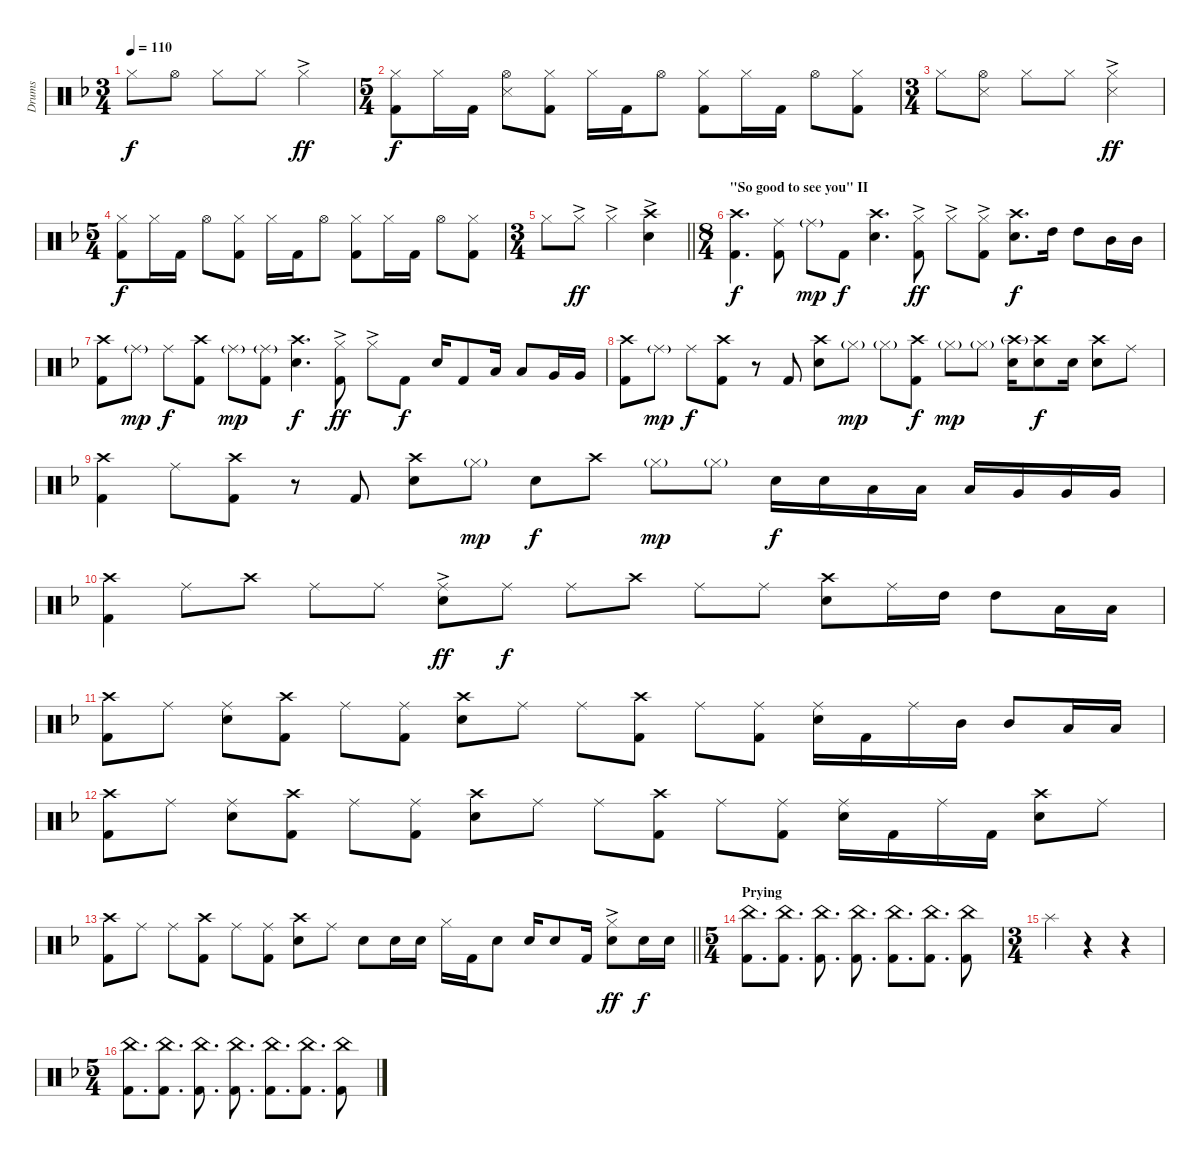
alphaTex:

\track ("Drums" "Drums") {instrument percussion}
\staff {score}
\articulation defaults
\ts (3 4)
\tempo 110
\clef neutral
\ks dminor "Hi-Hat (closed)".8{dy f} "Hi-Hat (open)".8 "Hi-Hat (closed)".8 "Hi-Hat (closed)".8 "Hi-Hat (closed)"{ac}.4{dy ff}
|
\ts (5 4)
("Hi-Hat (closed)" "Kick (hit) 2").8{dy f} "Hi-Hat (closed)".16 "Kick (hit) 2".16 ("Hi-Hat (open)" "Snare (side stick) 3").8 ("Hi-Hat (closed)" "Kick (hit) 2").8 "Hi-Hat (closed)".16 "Kick (hit) 2".16 "Hi-Hat (open)".8 ("Hi-Hat (closed)" "Kick (hit) 2").8 "Hi-Hat (closed)".16 "Kick (hit) 2".16 "Hi-Hat (open)".8 ("Hi-Hat (closed)" "Kick (hit) 2").8 |
\ts (3 4)
"Hi-Hat (closed)".8 ("Hi-Hat (open)" "Snare (side stick) 3").8 "Hi-Hat (closed)".8 "Hi-Hat (closed)".8 ("Hi-Hat (closed)"{ac} "Snare (side stick) 3").4{dy ff} |
\ts (5 4)
("Hi-Hat (closed)" "Kick (hit) 2").8{dy f} "Hi-Hat (closed)".16 "Kick (hit) 2".16 "Hi-Hat (open)".8 ("Hi-Hat (closed)" "Kick (hit) 2").8 "Hi-Hat (closed)".16 "Kick (hit) 2".16 "Hi-Hat (open)".8 ("Hi-Hat (closed)" "Kick (hit) 2").8 "Hi-Hat (closed)".16 "Kick (hit) 2".16 "Hi-Hat (open)".8 ("Hi-Hat (closed)" "Kick (hit) 2").8 |
\ts (3 4)
\barLineRight lightlight "Hi-Hat (closed)".8 "Hi-Hat (closed)"{ac}.8{dy ff} "Hi-Hat (closed)"{ac}.4
("Crash high (hit)"{ac} "Snare (hit) 2").4 |
\ts (8 4)
\section ("" "\"So good to see you\" II")
("Crash high (hit)" "Kick (hit) 2").4{d dy f} ("Ride (middle)" "Kick (hit) 2").8 "Ride (middle)"{g}.8{dy mp} "Kick (hit) 2".8{dy f} ("Crash high (hit)" "Snare (hit) 2").4{d} ("Hi-Hat (closed)"{ac} "Kick (hit) 2").8{dy ff} "Hi-Hat (closed)"{ac}.8 ("Hi-Hat (closed)"{ac} "Kick (hit) 2").8 ("Crash high (hit)" "Snare (hit) 2").8{d dy f} "High Tom (hit)".16 "High Tom (hit)".8 "Mid Tom (hit)".16 "Mid Tom (hit)".16 |
("Crash high (hit)" "Kick (hit) 2").8 "Ride (middle)"{g}.8{dy mp} "Ride (middle)".8{dy f} ("Crash high (hit)" "Kick (hit) 2").8 "Ride (middle)"{g}.8{dy mp} ("Ride (middle)"{g} "Kick (hit) 2").8 ("Crash high (hit)" "Snare (hit) 2").4{d dy f} ("Hi-Hat (closed)"{ac} "Kick (hit) 2").8{dy ff} "Hi-Hat (closed)"{ac}.8 "Kick (hit) 2".8{dy f} "Snare (hit) 2".16 "Kick (hit) 2".8 "Low Tom (hit)".16 "Low Tom (hit)".8 "Very Low Tom (hit)".16 "Very Low Tom (hit)".16 |
("Crash high (hit)" "Kick (hit) 2").8 "Ride (middle)"{g}.8{dy mp} "Ride (middle)".8{dy f} ("Crash high (hit)" "Kick (hit) 2").8 r.8 "Kick (hit) 2".8 ("Crash high (hit)" "Snare (hit) 2").8 "Hi-Hat (closed)"{g}.8{dy mp} "Hi-Hat (closed)"{g}.8 ("Crash high (hit)" "Kick (hit) 2").8{dy f} "Hi-Hat (closed)"{g}.8{dy mp} "Hi-Hat (closed)"{g}.8 ("Crash high (hit)"{g} "Snare (hit) 2").16 ("Crash high (hit)" "Snare (hit) 2").8{dy f} "Snare (hit) 2".16 ("Crash high (hit)" "Snare (hit) 2").8 "Ride (middle)".8 |
("Crash high (hit)" "Kick (hit) 2").4 "Ride (middle)".8 ("Crash high (hit)" "Kick (hit) 2").8 r.8 "Kick (hit) 2".8 ("Crash high (hit)" "Snare (hit) 2").8 "Hi-Hat (closed)"{g}.8{dy mp} "Snare (hit) 2".8{dy f} "Crash high (hit)".8 "Hi-Hat (closed)"{g}.8{dy mp} "Hi-Hat (closed)"{g}.8 "Snare (hit) 2".16{dy f} "Snare (hit) 2".16 "Low Tom (hit)".16 "Low Tom (hit)".16 "Low Tom (hit)".16 "Very Low Tom (hit)".16 "Very Low Tom (hit)".16 "Very Low Tom (hit)".16 |
("Crash high (hit)" "Kick (hit) 2").4 "Ride (middle)".8 "Crash high (hit)".8 "Ride (middle)".8 "Ride (middle)".8 ("Ride (middle)"{ac} "Snare (hit) 2").8{dy ff} "Ride (middle)".8{dy f} "Ride (middle)".8 "Crash high (hit)".8 "Ride (middle)".8 "Ride (middle)".8 ("Crash high (hit)" "Snare (hit) 2").8 "Ride (middle)".16 "High Tom (hit)".16 "High Tom (hit)".8 "Low Tom (hit)".16 "Low Tom (hit)".16 |
("Crash high (hit)" "Kick (hit) 2").8 "Ride (middle)".8 ("Ride (middle)" "Snare (hit) 2").8 ("Crash high (hit)" "Kick (hit) 2").8 "Ride (middle)".8 ("Ride (middle)" "Kick (hit) 2").8 ("Crash high (hit)" "Snare (hit) 2").8 "Ride (middle)".8 "Ride (middle)".8 ("Crash high (hit)" "Kick (hit) 2").8 "Ride (middle)".8 ("Ride (middle)" "Kick (hit) 2").8 ("Ride (middle)" "Snare (hit) 2").16 "Kick (hit) 2".16 "Ride (middle)".16 "Mid Tom (hit)".16 "Mid Tom (hit)".8 "Low Tom (hit)".16 "Low Tom (hit)".16 |
("Crash high (hit)" "Kick (hit) 2").8 "Ride (middle)".8 ("Ride (middle)" "Snare (hit) 2").8 ("Crash high (hit)" "Kick (hit) 2").8 "Ride (middle)".8 ("Ride (middle)" "Kick (hit) 2").8 ("Crash high (hit)" "Snare (hit) 2").8 "Ride (middle)".8 "Ride (middle)".8 ("Crash high (hit)" "Kick (hit) 2").8 "Ride (middle)".8 ("Ride (middle)" "Kick (hit) 2").8 ("Ride (middle)" "Snare (hit) 2").16 "Kick (hit) 2".16 "Ride (middle)".16 "Kick (hit) 2".16 ("Crash high (hit)" "Snare (hit) 2").8 "Ride (middle)".8 |
\barLineRight lightlight
("Crash high (hit)" "Kick (hit) 2").8 "Ride (middle)".8 "Ride (middle)".8 ("Crash high (hit)" "Kick (hit) 2").8 "Ride (middle)".8 ("Ride (middle)" "Kick (hit) 2").8 ("Crash high (hit)" "Snare (hit) 2").8 "Ride (middle)".8 "Snare (hit) 2".8 "Snare (hit) 2".16 "Snare (hit) 2".16 "Hi-Hat (closed)".16 "Kick (hit) 2".16 "Snare (hit) 2".8 "Snare (hit) 2".16 "Snare (hit) 2".8 "Kick (hit) 2".16 ("Hi-Hat (closed)"{ac} "Snare (hit) 2").8{dy ff} "Snare (hit) 2".16{dy f} "Snare (hit) 2".16 |
\ts (5 4)
\section ("" "Prying")
("China (hit)" "Kick (hit) 2").8{d} ("China (hit)" "Kick (hit) 2").8{d} ("China (hit)" "Kick (hit) 2").8{d} ("China (hit)" "Kick (hit) 2").8{d} ("China (hit)" "Kick (hit) 2").8{d} ("China (hit)" "Kick (hit) 2").8{d} ("China (hit)" "Kick (hit) 2").8 |
\ts (3 4)
"Splash (hit)".4 r.4 r.4 |
\ts (5 4)
("China (hit)" "Kick (hit) 2").8{d} ("China (hit)" "Kick (hit) 2").8{d} ("China (hit)" "Kick (hit) 2").8{d} ("China (hit)" "Kick (hit) 2").8{d} ("China (hit)" "Kick (hit) 2").8{d} ("China (hit)" "Kick (hit) 2").8{d} ("China (hit)" "Kick (hit) 2").8
